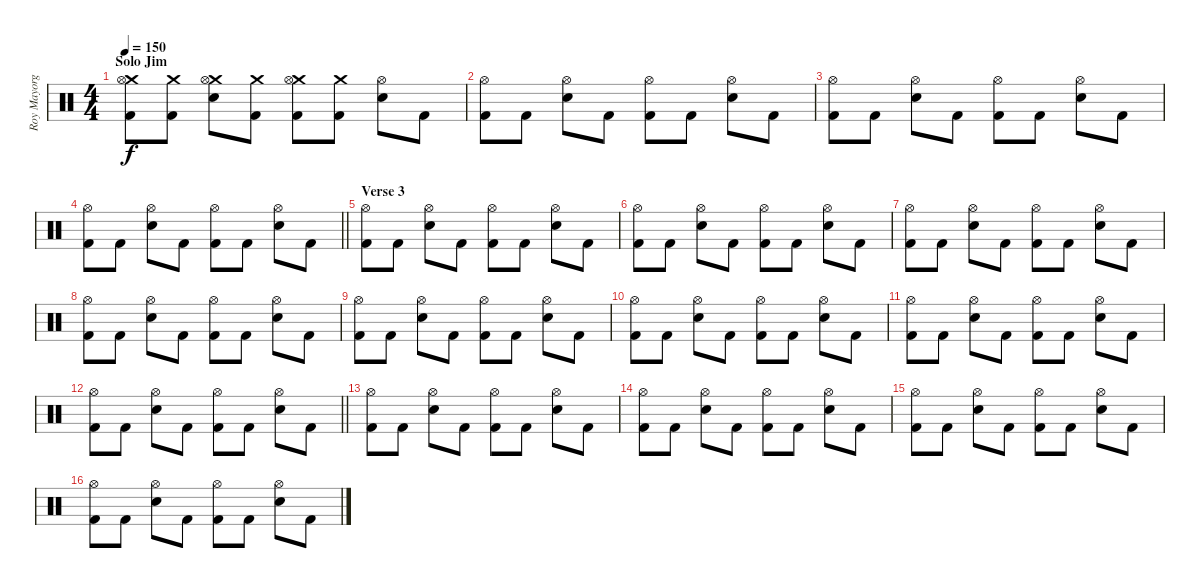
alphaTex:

\track ("Roy Mayorga" "Roy Mayorg") {instrument percussion}
\staff {score}
\articulation defaults
\ts (4 4)
\section ("" "Solo Jim")
\tempo 150
\clef neutral
\ks c
("Crash medium (hit)" "Hi-Hat (open)" "Kick (hit) 2").8{dy f} ("Crash medium (hit)" "Kick (hit) 2").8 ("Crash medium (hit)" "Hi-Hat (open)" "Electric Snare (hit)").8 ("Crash medium (hit)" "Kick (hit) 2").8 ("Crash medium (hit)" "Hi-Hat (open)" "Kick (hit) 2").8 ("Crash medium (hit)" "Kick (hit) 2").8 ("Hi-Hat (open)" "Electric Snare (hit)").8 "Kick (hit) 2".8 |
("Hi-Hat (open)" "Kick (hit) 2").8 "Kick (hit) 2".8 ("Hi-Hat (open)" "Electric Snare (hit)").8 "Kick (hit) 2".8 ("Hi-Hat (open)" "Kick (hit) 2").8 "Kick (hit) 2".8 ("Hi-Hat (open)" "Electric Snare (hit)").8 "Kick (hit) 2".8 |
("Hi-Hat (open)" "Kick (hit) 2").8 "Kick (hit) 2".8 ("Hi-Hat (open)" "Electric Snare (hit)").8 "Kick (hit) 2".8 ("Hi-Hat (open)" "Kick (hit) 2").8 "Kick (hit) 2".8 ("Hi-Hat (open)" "Electric Snare (hit)").8 "Kick (hit) 2".8 |
\barLineRight lightlight
("Hi-Hat (open)" "Kick (hit) 2").8 "Kick (hit) 2".8 ("Hi-Hat (open)" "Electric Snare (hit)").8 "Kick (hit) 2".8 ("Hi-Hat (open)" "Kick (hit) 2").8 "Kick (hit) 2".8 ("Hi-Hat (open)" "Electric Snare (hit)").8 "Kick (hit) 2".8 |
\section ("" "Verse 3")
("Hi-Hat (open)" "Kick (hit) 2").8 "Kick (hit) 2".8 ("Hi-Hat (open)" "Electric Snare (hit)").8 "Kick (hit) 2".8 ("Hi-Hat (open)" "Kick (hit) 2").8 "Kick (hit) 2".8 ("Hi-Hat (open)" "Electric Snare (hit)").8 "Kick (hit) 2".8 |
("Hi-Hat (open)" "Kick (hit) 2").8 "Kick (hit) 2".8 ("Hi-Hat (open)" "Electric Snare (hit)").8 "Kick (hit) 2".8 ("Hi-Hat (open)" "Kick (hit) 2").8 "Kick (hit) 2".8 ("Hi-Hat (open)" "Electric Snare (hit)").8 "Kick (hit) 2".8 |
("Hi-Hat (open)" "Kick (hit) 2").8 "Kick (hit) 2".8 ("Hi-Hat (open)" "Electric Snare (hit)").8 "Kick (hit) 2".8 ("Hi-Hat (open)" "Kick (hit) 2").8 "Kick (hit) 2".8 ("Hi-Hat (open)" "Electric Snare (hit)").8 "Kick (hit) 2".8 |
("Hi-Hat (open)" "Kick (hit) 2").8 "Kick (hit) 2".8 ("Hi-Hat (open)" "Electric Snare (hit)").8 "Kick (hit) 2".8 ("Hi-Hat (open)" "Kick (hit) 2").8 "Kick (hit) 2".8 ("Hi-Hat (open)" "Electric Snare (hit)").8 "Kick (hit) 2".8 |
("Hi-Hat (open)" "Kick (hit) 2").8 "Kick (hit) 2".8 ("Hi-Hat (open)" "Electric Snare (hit)").8 "Kick (hit) 2".8 ("Hi-Hat (open)" "Kick (hit) 2").8 "Kick (hit) 2".8 ("Hi-Hat (open)" "Electric Snare (hit)").8 "Kick (hit) 2".8 |
("Hi-Hat (open)" "Kick (hit) 2").8 "Kick (hit) 2".8 ("Hi-Hat (open)" "Electric Snare (hit)").8 "Kick (hit) 2".8 ("Hi-Hat (open)" "Kick (hit) 2").8 "Kick (hit) 2".8 ("Hi-Hat (open)" "Electric Snare (hit)").8 "Kick (hit) 2".8 |
("Hi-Hat (open)" "Kick (hit) 2").8 "Kick (hit) 2".8 ("Hi-Hat (open)" "Electric Snare (hit)").8 "Kick (hit) 2".8 ("Hi-Hat (open)" "Kick (hit) 2").8 "Kick (hit) 2".8 ("Hi-Hat (open)" "Electric Snare (hit)").8 "Kick (hit) 2".8 |
\barLineRight lightlight
("Hi-Hat (open)" "Kick (hit) 2").8 "Kick (hit) 2".8 ("Hi-Hat (open)" "Electric Snare (hit)").8 "Kick (hit) 2".8 ("Hi-Hat (open)" "Kick (hit) 2").8 "Kick (hit) 2".8 ("Hi-Hat (open)" "Electric Snare (hit)").8 "Kick (hit) 2".8 |
("Hi-Hat (open)" "Kick (hit) 2").8 "Kick (hit) 2".8 ("Hi-Hat (open)" "Electric Snare (hit)").8 "Kick (hit) 2".8 ("Hi-Hat (open)" "Kick (hit) 2").8 "Kick (hit) 2".8 ("Hi-Hat (open)" "Electric Snare (hit)").8 "Kick (hit) 2".8 |
("Hi-Hat (open)" "Kick (hit) 2").8 "Kick (hit) 2".8 ("Hi-Hat (open)" "Electric Snare (hit)").8 "Kick (hit) 2".8 ("Hi-Hat (open)" "Kick (hit) 2").8 "Kick (hit) 2".8 ("Hi-Hat (open)" "Electric Snare (hit)").8 "Kick (hit) 2".8 |
("Hi-Hat (open)" "Kick (hit) 2").8 "Kick (hit) 2".8 ("Hi-Hat (open)" "Electric Snare (hit)").8 "Kick (hit) 2".8 ("Hi-Hat (open)" "Kick (hit) 2").8 "Kick (hit) 2".8 ("Hi-Hat (open)" "Electric Snare (hit)").8 "Kick (hit) 2".8 |
("Hi-Hat (open)" "Kick (hit) 2").8 "Kick (hit) 2".8 ("Hi-Hat (open)" "Electric Snare (hit)").8 "Kick (hit) 2".8 ("Hi-Hat (open)" "Kick (hit) 2").8 "Kick (hit) 2".8 ("Hi-Hat (open)" "Electric Snare (hit)").8 "Kick (hit) 2".8
